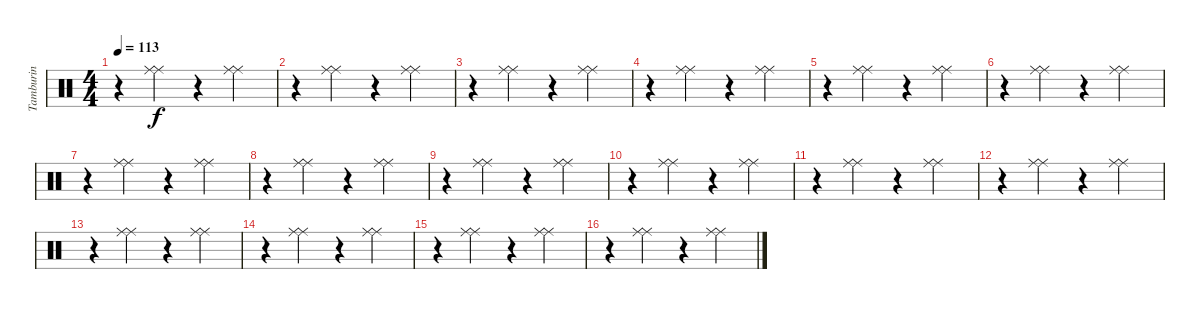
\track ("Tamburin" "Tamburin") {instrument percussion}
\staff {score}
\articulation defaults
\ts (4 4)
\tempo 113
\clef neutral
\ks c
r.4{dy f} ("Ride (middle)" "Ride (middle)").4 r.4 ("Ride (middle)" "Ride (middle)").4 |
r.4 ("Ride (middle)" "Ride (middle)").4 r.4 ("Ride (middle)" "Ride (middle)").4 |
r.4 ("Ride (middle)" "Ride (middle)").4 r.4 ("Ride (middle)" "Ride (middle)").4 |
r.4 ("Ride (middle)" "Ride (middle)").4 r.4 ("Ride (middle)" "Ride (middle)").4 |
r.4 ("Ride (middle)" "Ride (middle)").4 r.4 ("Ride (middle)" "Ride (middle)").4 |
r.4 ("Ride (middle)" "Ride (middle)").4 r.4 ("Ride (middle)" "Ride (middle)").4 |
r.4 ("Ride (middle)" "Ride (middle)").4 r.4 ("Ride (middle)" "Ride (middle)").4 |
r.4 ("Ride (middle)" "Ride (middle)").4 r.4 ("Ride (middle)" "Ride (middle)").4 |
r.4 ("Ride (middle)" "Ride (middle)").4 r.4 ("Ride (middle)" "Ride (middle)").4 |
r.4 ("Ride (middle)" "Ride (middle)").4 r.4 ("Ride (middle)" "Ride (middle)").4 |
r.4 ("Ride (middle)" "Ride (middle)").4 r.4 ("Ride (middle)" "Ride (middle)").4 |
r.4 ("Ride (middle)" "Ride (middle)").4 r.4 ("Ride (middle)" "Ride (middle)").4 |
r.4 ("Ride (middle)" "Ride (middle)").4 r.4 ("Ride (middle)" "Ride (middle)").4 |
r.4 ("Ride (middle)" "Ride (middle)").4 r.4 ("Ride (middle)" "Ride (middle)").4 |
r.4 ("Ride (middle)" "Ride (middle)").4 r.4 ("Ride (middle)" "Ride (middle)").4 |
r.4 ("Ride (middle)" "Ride (middle)").4 r.4 ("Ride (middle)" "Ride (middle)").4
